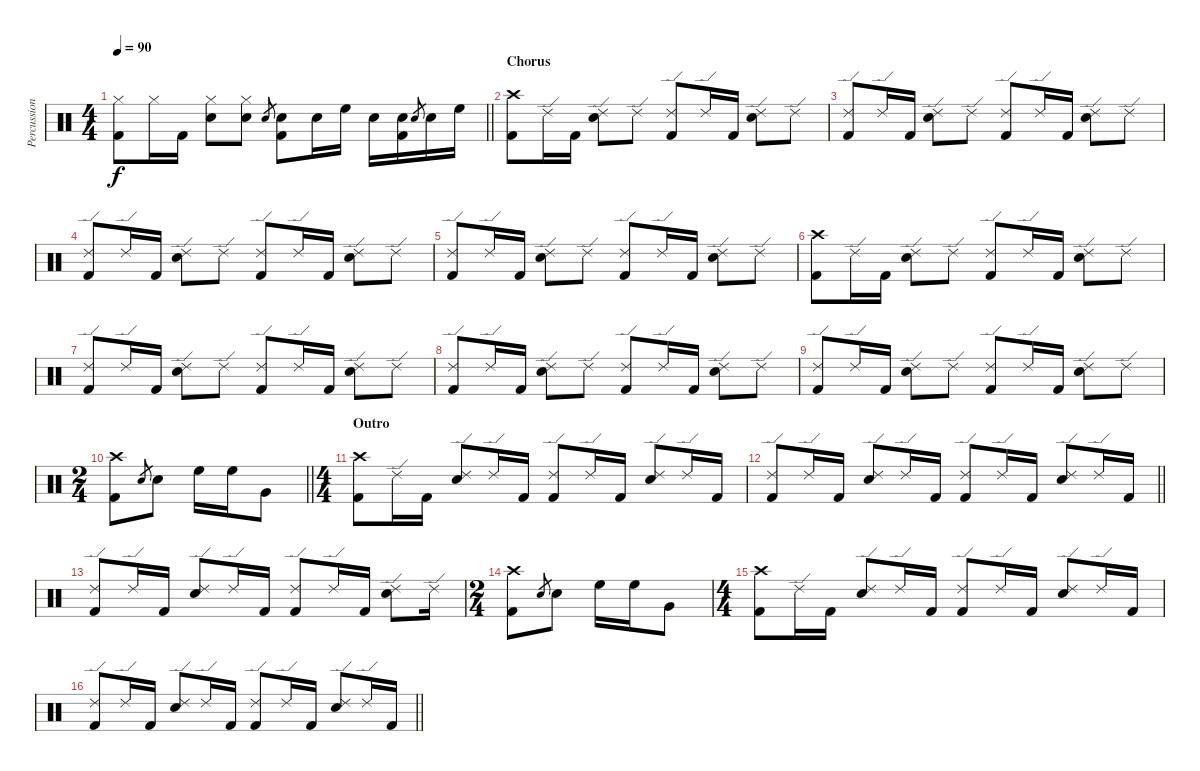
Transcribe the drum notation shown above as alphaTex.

\track ("Percussion" "Percussion") {instrument percussion}
\staff {score}
\articulation defaults
\ts (4 4)
\tempo 90
\clef neutral
\barLineRight lightlight
\ks c
("Hi-Hat (closed)" "Kick (hit) 2").8{dy f} "Hi-Hat (closed)".16 "Kick (hit) 2".16 ("Hi-Hat (closed)" "Electric Snare (hit)").8 ("Hi-Hat (closed)" "Electric Snare (hit)").8 "Electric Snare (hit)".8{gr} ("Electric Snare (hit)" "Kick (hit) 2").8 "Electric Snare (hit)".16 "High Floor Tom (hit)".16 "Electric Snare (hit)".16 ("Electric Snare (hit)" "Kick (hit) 2").16 "Electric Snare (hit)".8{gr} "Electric Snare (hit)".16 "High Floor Tom (hit)".16 |
\section ("" "Chorus")
("Crash high (hit)" "Kick (hit) 2").8 "Ride (edge) 2".16 "Kick (hit) 2".16 ("Ride (edge) 2" "Electric Snare (hit)").8 "Ride (edge) 2".8 ("Ride (edge) 2" "Kick (hit) 2").8 "Ride (edge) 2".16 "Kick (hit) 2".16 ("Ride (edge) 2" "Electric Snare (hit)").8 "Ride (edge) 2".8 |
("Ride (edge) 2" "Kick (hit) 2").8 "Ride (edge) 2".16 "Kick (hit) 2".16 ("Ride (edge) 2" "Electric Snare (hit)").8 "Ride (edge) 2".8 ("Ride (edge) 2" "Kick (hit) 2").8 "Ride (edge) 2".16 "Kick (hit) 2".16 ("Ride (edge) 2" "Electric Snare (hit)").8 "Ride (edge) 2".8 |
("Ride (edge) 2" "Kick (hit) 2").8 "Ride (edge) 2".16 "Kick (hit) 2".16 ("Ride (edge) 2" "Electric Snare (hit)").8 "Ride (edge) 2".8 ("Ride (edge) 2" "Kick (hit) 2").8 "Ride (edge) 2".16 "Kick (hit) 2".16 ("Ride (edge) 2" "Electric Snare (hit)").8 "Ride (edge) 2".8 |
("Ride (edge) 2" "Kick (hit) 2").8 "Ride (edge) 2".16 "Kick (hit) 2".16 ("Ride (edge) 2" "Electric Snare (hit)").8 "Ride (edge) 2".8 ("Ride (edge) 2" "Kick (hit) 2").8 "Ride (edge) 2".16 "Kick (hit) 2".16 ("Ride (edge) 2" "Electric Snare (hit)").8 "Ride (edge) 2".8 |
("Crash high (hit)" "Kick (hit) 2").8 "Ride (edge) 2".16 "Kick (hit) 2".16 ("Ride (edge) 2" "Electric Snare (hit)").8 "Ride (edge) 2".8 ("Ride (edge) 2" "Kick (hit) 2").8 "Ride (edge) 2".16 "Kick (hit) 2".16 ("Ride (edge) 2" "Electric Snare (hit)").8 "Ride (edge) 2".8 |
("Ride (edge) 2" "Kick (hit) 2").8 "Ride (edge) 2".16 "Kick (hit) 2".16 ("Ride (edge) 2" "Electric Snare (hit)").8 "Ride (edge) 2".8 ("Ride (edge) 2" "Kick (hit) 2").8 "Ride (edge) 2".16 "Kick (hit) 2".16 ("Ride (edge) 2" "Electric Snare (hit)").8 "Ride (edge) 2".8 |
("Ride (edge) 2" "Kick (hit) 2").8 "Ride (edge) 2".16 "Kick (hit) 2".16 ("Ride (edge) 2" "Electric Snare (hit)").8 "Ride (edge) 2".8 ("Ride (edge) 2" "Kick (hit) 2").8 "Ride (edge) 2".16 "Kick (hit) 2".16 ("Ride (edge) 2" "Electric Snare (hit)").8 "Ride (edge) 2".8 |
("Ride (edge) 2" "Kick (hit) 2").8 "Ride (edge) 2".16 "Kick (hit) 2".16 ("Ride (edge) 2" "Electric Snare (hit)").8 "Ride (edge) 2".8 ("Ride (edge) 2" "Kick (hit) 2").8 "Ride (edge) 2".16 "Kick (hit) 2".16 ("Ride (edge) 2" "Electric Snare (hit)").8 "Ride (edge) 2".8 |
\ts (2 4)
\barLineRight lightlight
("Crash high (hit)" "Kick (hit) 2").8 "Electric Snare (hit)".8{gr} "Electric Snare (hit)".8 "High Floor Tom (hit)".16 "High Floor Tom (hit)".16 "Very Low Tom (hit)".8 |
\ts (4 4)
\section ("" "Outro")
("Crash high (hit)" "Kick (hit) 2").8 "Ride (edge) 2".16 "Kick (hit) 2".16 ("Ride (edge) 2" "Electric Snare (hit)").8 "Ride (edge) 2".16 "Kick (hit) 2".16 ("Ride (edge) 2" "Kick (hit) 2").8 "Ride (edge) 2".16 "Kick (hit) 2".16 ("Ride (edge) 2" "Electric Snare (hit)").8 "Ride (edge) 2".16 "Kick (hit) 2".16 |
\barLineRight lightlight
("Ride (edge) 2" "Kick (hit) 2").8 "Ride (edge) 2".16 "Kick (hit) 2".16 ("Ride (edge) 2" "Electric Snare (hit)").8 "Ride (edge) 2".16 "Kick (hit) 2".16 ("Ride (edge) 2" "Kick (hit) 2").8 "Ride (edge) 2".16 "Kick (hit) 2".16 ("Ride (edge) 2" "Electric Snare (hit)").8 "Ride (edge) 2".16 "Kick (hit) 2".16 |
("Ride (edge) 2" "Kick (hit) 2").8 "Ride (edge) 2".16 "Kick (hit) 2".16 ("Ride (edge) 2" "Electric Snare (hit)").8 "Ride (edge) 2".16 "Kick (hit) 2".16 ("Ride (edge) 2" "Kick (hit) 2").8 "Ride (edge) 2".16 "Kick (hit) 2".16 ("Ride (edge) 2" "Electric Snare (hit)").8 "Ride (edge) 2".16 |
\ts (2 4)
("Crash high (hit)" "Kick (hit) 2").8 "Electric Snare (hit)".8{gr} "Electric Snare (hit)".8 "High Floor Tom (hit)".16 "High Floor Tom (hit)".16 "Very Low Tom (hit)".8 |
\ts (4 4)
("Crash high (hit)" "Kick (hit) 2").8 "Ride (edge) 2".16 "Kick (hit) 2".16 ("Ride (edge) 2" "Electric Snare (hit)").8 "Ride (edge) 2".16 "Kick (hit) 2".16 ("Ride (edge) 2" "Kick (hit) 2").8 "Ride (edge) 2".16 "Kick (hit) 2".16 ("Ride (edge) 2" "Electric Snare (hit)").8 "Ride (edge) 2".16 "Kick (hit) 2".16 |
\barLineRight lightlight
("Ride (edge) 2" "Kick (hit) 2").8 "Ride (edge) 2".16 "Kick (hit) 2".16 ("Ride (edge) 2" "Electric Snare (hit)").8 "Ride (edge) 2".16 "Kick (hit) 2".16 ("Ride (edge) 2" "Kick (hit) 2").8 "Ride (edge) 2".16 "Kick (hit) 2".16 ("Ride (edge) 2" "Electric Snare (hit)").8 "Ride (edge) 2".16 "Kick (hit) 2".16
